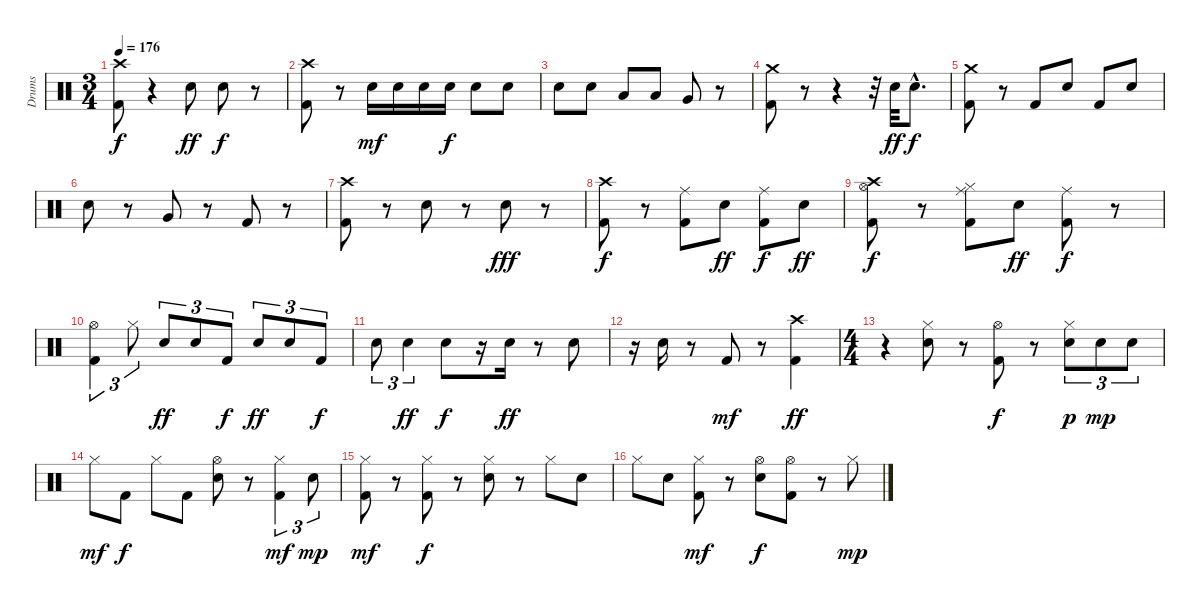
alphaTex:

\track ("Drums" "Drums") {instrument percussion}
\staff {score}
\articulation defaults
\ts (3 4)
\tempo 176
\clef neutral
\ks c
("Crash high (hit)" "Kick (hit) 2").8{dy f} r.4 "Snare (hit) 2".8{dy ff} "Snare (hit) 2".8{dy f} r.8 |
("Crash high (hit)" "Kick (hit) 2").8 r.8 "Snare (hit) 2".16{dy mf} "Snare (hit) 2".16 "Snare (hit) 2".16 "Snare (hit) 2".16{dy f} "Snare (hit) 2".8 "Snare (hit) 2".8 |
"Snare (hit) 2".8 "Snare (hit) 2".8 "Low Tom (hit)".8 "Low Tom (hit)".8 "Very Low Tom (hit)".8 r.8 |
("Crash medium (hit)" "Kick (hit) 2").8 r.8 r.4 r.32 "Snare (hit) 2".32{dy ff} "Snare (hit) 2"{hac}.8{d dy f} |
("Crash medium (hit)" "Kick (hit) 2").8 r.8 "Kick (hit) 2".8 "Electric Snare (hit)".8 "Kick (hit) 2".8 "Electric Snare (hit)".8 |
"Electric Snare (hit)".8 r.8 "Very Low Tom (hit)".8 r.8 "Kick (hit) 2".8 r.8 |
("Crash high (hit)" "Kick (hit) 2").8 r.8 "Snare (hit) 2".8 r.8 "Snare (hit) 2".8{dy fff} r.8 |
("Crash high (hit)" "Kick (hit) 2").8{dy f} r.8 ("Ride (middle)" "Kick (hit) 2").8 "Snare (hit) 2".8{dy ff} ("Ride (middle)" "Kick (hit) 2").8{dy f} "Snare (hit) 2".8{dy ff} |
("Crash high (hit)" "Hi-Hat (open)" "Kick (hit) 2").8{dy f} r.8 ("Ride (middle)" "Hi-Hat (closed)" "Kick (hit) 2").8 "Snare (hit) 2".8{dy ff} ("Ride (middle)" "Kick (hit) 2").8{dy f} r.8 |
("Hi-Hat (open)" "Kick (hit) 2").4{tu (3 2)} "Hi-Hat (closed)".8{tu (3 2)} "Snare (hit) 2".8{tu (3 2) dy ff} "Snare (hit) 2".8{tu (3 2)} "Kick (hit) 2".8{tu (3 2) dy f} "Snare (hit) 2".8{tu (3 2) dy ff} "Snare (hit) 2".8{tu (3 2)} "Kick (hit) 2".8{tu (3 2) dy f} |
"Snare (hit) 2".8{tu (3 2)} "Snare (hit) 2".4{tu (3 2) dy ff} "Snare (hit) 2".8{dy f} r.16 "Snare (hit) 2".16{dy ff} r.8 "Snare (hit) 2".8 |
r.16 "Snare (hit) 2".16 r.8 "Kick (hit) 2".8{dy mf} r.8 ("Crash high (hit)" "Kick (hit) 2").4{dy ff} |
\ts (4 4)
r.4 ("Hi-Hat (closed)" "Snare (hit) 2").8 r.8 ("Hi-Hat (open)" "Kick (hit) 2").8{dy f} r.8 ("Hi-Hat (closed)" "Snare (hit) 2").8{tu (3 2) dy p} "Snare (hit) 2".8{tu (3 2) dy mp} "Snare (hit) 2".8{tu (3 2)} |
"Hi-Hat (closed)".8{dy mf} "Kick (hit) 2".8{dy f} "Hi-Hat (closed)".8 "Kick (hit) 2".8 ("Hi-Hat (open)" "Snare (hit) 2").8 r.8 ("Hi-Hat (closed)" "Kick (hit) 2").4{tu (3 2) dy mf} "Snare (hit) 2".8{tu (3 2) dy mp} |
("Hi-Hat (closed)" "Kick (hit) 2").8{dy mf} r.8 ("Hi-Hat (closed)" "Kick (hit) 2").8{dy f} r.8 ("Hi-Hat (closed)" "Snare (hit) 2").8 r.8 "Hi-Hat (closed)".8 "Snare (hit) 2".8 |
"Hi-Hat (closed)".8 "Snare (hit) 2".8 ("Hi-Hat (closed)" "Kick (hit) 2").8{dy mf} r.8 ("Hi-Hat (open)" "Snare (hit) 2").8{dy f} ("Hi-Hat (open)" "Kick (hit) 2").8 r.8 "Hi-Hat (closed)".8{dy mp}
